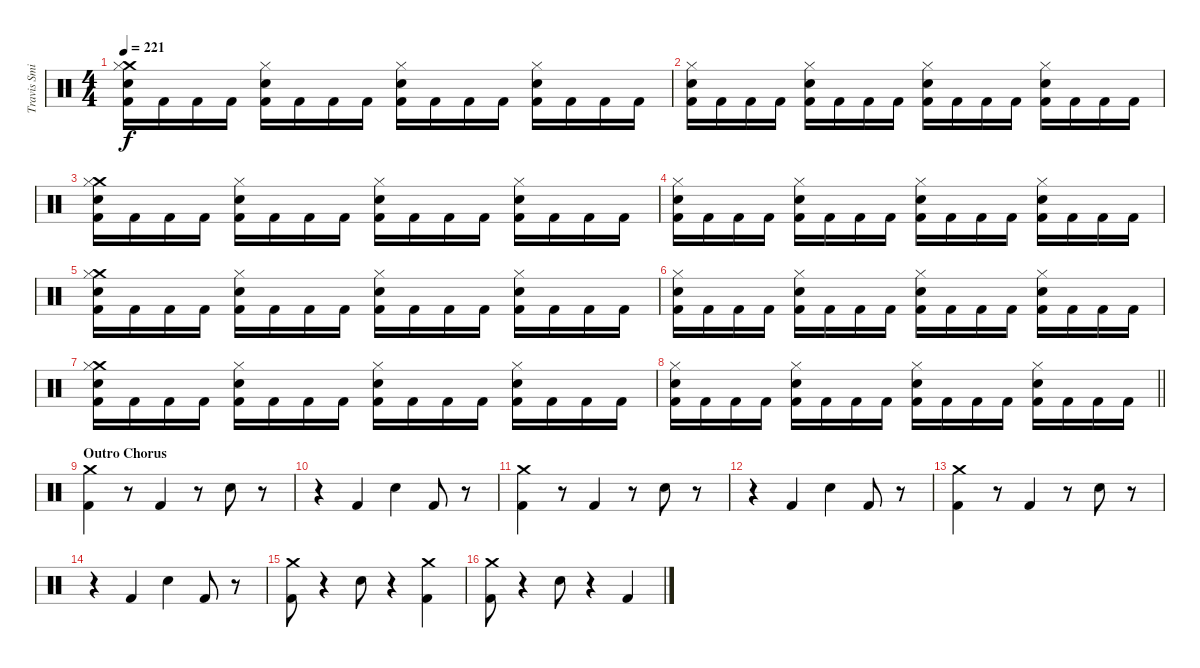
\track ("Travis Smith" "Travis Smi") {instrument percussion}
\staff {score}
\articulation defaults
\ts (4 4)
\tempo 221
\clef neutral
\ks c
("Crash medium (hit)" "Hi-Hat (closed)" "Electric Snare (hit)" "Kick (hit) 2").16{dy f} "Kick (hit) 2".16 "Kick (hit) 2".16 "Kick (hit) 2".16 ("Hi-Hat (closed)" "Electric Snare (hit)" "Kick (hit) 2").16 "Kick (hit) 2".16 "Kick (hit) 2".16 "Kick (hit) 2".16 ("Hi-Hat (closed)" "Electric Snare (hit)" "Kick (hit) 2").16 "Kick (hit) 2".16 "Kick (hit) 2".16 "Kick (hit) 2".16 ("Hi-Hat (closed)" "Electric Snare (hit)" "Kick (hit) 2").16 "Kick (hit) 2".16 "Kick (hit) 2".16 "Kick (hit) 2".16 |
("Hi-Hat (closed)" "Electric Snare (hit)" "Kick (hit) 2").16 "Kick (hit) 2".16 "Kick (hit) 2".16 "Kick (hit) 2".16 ("Hi-Hat (closed)" "Electric Snare (hit)" "Kick (hit) 2").16 "Kick (hit) 2".16 "Kick (hit) 2".16 "Kick (hit) 2".16 ("Hi-Hat (closed)" "Electric Snare (hit)" "Kick (hit) 2").16 "Kick (hit) 2".16 "Kick (hit) 2".16 "Kick (hit) 2".16 ("Hi-Hat (closed)" "Electric Snare (hit)" "Kick (hit) 2").16 "Kick (hit) 2".16 "Kick (hit) 2".16 "Kick (hit) 2".16 |
("Crash medium (hit)" "Hi-Hat (closed)" "Electric Snare (hit)" "Kick (hit) 2").16 "Kick (hit) 2".16 "Kick (hit) 2".16 "Kick (hit) 2".16 ("Hi-Hat (closed)" "Electric Snare (hit)" "Kick (hit) 2").16 "Kick (hit) 2".16 "Kick (hit) 2".16 "Kick (hit) 2".16 ("Hi-Hat (closed)" "Electric Snare (hit)" "Kick (hit) 2").16 "Kick (hit) 2".16 "Kick (hit) 2".16 "Kick (hit) 2".16 ("Hi-Hat (closed)" "Electric Snare (hit)" "Kick (hit) 2").16 "Kick (hit) 2".16 "Kick (hit) 2".16 "Kick (hit) 2".16 |
("Hi-Hat (closed)" "Electric Snare (hit)" "Kick (hit) 2").16 "Kick (hit) 2".16 "Kick (hit) 2".16 "Kick (hit) 2".16 ("Hi-Hat (closed)" "Electric Snare (hit)" "Kick (hit) 2").16 "Kick (hit) 2".16 "Kick (hit) 2".16 "Kick (hit) 2".16 ("Hi-Hat (closed)" "Electric Snare (hit)" "Kick (hit) 2").16 "Kick (hit) 2".16 "Kick (hit) 2".16 "Kick (hit) 2".16 ("Hi-Hat (closed)" "Electric Snare (hit)" "Kick (hit) 2").16 "Kick (hit) 2".16 "Kick (hit) 2".16 "Kick (hit) 2".16 |
("Crash medium (hit)" "Hi-Hat (closed)" "Electric Snare (hit)" "Kick (hit) 2").16 "Kick (hit) 2".16 "Kick (hit) 2".16 "Kick (hit) 2".16 ("Hi-Hat (closed)" "Electric Snare (hit)" "Kick (hit) 2").16 "Kick (hit) 2".16 "Kick (hit) 2".16 "Kick (hit) 2".16 ("Hi-Hat (closed)" "Electric Snare (hit)" "Kick (hit) 2").16 "Kick (hit) 2".16 "Kick (hit) 2".16 "Kick (hit) 2".16 ("Hi-Hat (closed)" "Electric Snare (hit)" "Kick (hit) 2").16 "Kick (hit) 2".16 "Kick (hit) 2".16 "Kick (hit) 2".16 |
("Hi-Hat (closed)" "Electric Snare (hit)" "Kick (hit) 2").16 "Kick (hit) 2".16 "Kick (hit) 2".16 "Kick (hit) 2".16 ("Hi-Hat (closed)" "Electric Snare (hit)" "Kick (hit) 2").16 "Kick (hit) 2".16 "Kick (hit) 2".16 "Kick (hit) 2".16 ("Hi-Hat (closed)" "Electric Snare (hit)" "Kick (hit) 2").16 "Kick (hit) 2".16 "Kick (hit) 2".16 "Kick (hit) 2".16 ("Hi-Hat (closed)" "Electric Snare (hit)" "Kick (hit) 2").16 "Kick (hit) 2".16 "Kick (hit) 2".16 "Kick (hit) 2".16 |
("Crash medium (hit)" "Hi-Hat (closed)" "Electric Snare (hit)" "Kick (hit) 2").16 "Kick (hit) 2".16 "Kick (hit) 2".16 "Kick (hit) 2".16 ("Hi-Hat (closed)" "Electric Snare (hit)" "Kick (hit) 2").16 "Kick (hit) 2".16 "Kick (hit) 2".16 "Kick (hit) 2".16 ("Hi-Hat (closed)" "Electric Snare (hit)" "Kick (hit) 2").16 "Kick (hit) 2".16 "Kick (hit) 2".16 "Kick (hit) 2".16 ("Hi-Hat (closed)" "Electric Snare (hit)" "Kick (hit) 2").16 "Kick (hit) 2".16 "Kick (hit) 2".16 "Kick (hit) 2".16 |
\barLineRight lightlight
("Hi-Hat (closed)" "Electric Snare (hit)" "Kick (hit) 2").16 "Kick (hit) 2".16 "Kick (hit) 2".16 "Kick (hit) 2".16 ("Hi-Hat (closed)" "Electric Snare (hit)" "Kick (hit) 2").16 "Kick (hit) 2".16 "Kick (hit) 2".16 "Kick (hit) 2".16 ("Hi-Hat (closed)" "Electric Snare (hit)" "Kick (hit) 2").16 "Kick (hit) 2".16 "Kick (hit) 2".16 "Kick (hit) 2".16 ("Hi-Hat (closed)" "Electric Snare (hit)" "Kick (hit) 2").16 "Kick (hit) 2".16 "Kick (hit) 2".16 "Kick (hit) 2".16 |
\section ("" "Outro Chorus")
("Crash medium (hit)" "Kick (hit) 2").4 r.8 "Kick (hit) 2".4 r.8 "Electric Snare (hit)".8 r.8 |
r.4 "Kick (hit) 2".4 "Electric Snare (hit)".4 "Kick (hit) 2".8 r.8 |
("Crash medium (hit)" "Kick (hit) 2").4 r.8 "Kick (hit) 2".4 r.8 "Electric Snare (hit)".8 r.8 |
r.4 "Kick (hit) 2".4 "Electric Snare (hit)".4 "Kick (hit) 2".8 r.8 |
("Crash medium (hit)" "Kick (hit) 2").4 r.8 "Kick (hit) 2".4 r.8 "Electric Snare (hit)".8 r.8 |
r.4 "Kick (hit) 2".4 "Electric Snare (hit)".4 "Kick (hit) 2".8 r.8 |
("Crash medium (hit)" "Kick (hit) 2").8 r.4 "Electric Snare (hit)".8 r.4 ("Crash medium (hit)" "Kick (hit) 2").4 |
("Crash medium (hit)" "Kick (hit) 2").8 r.4 "Electric Snare (hit)".8 r.4 "Kick (hit) 2".4
